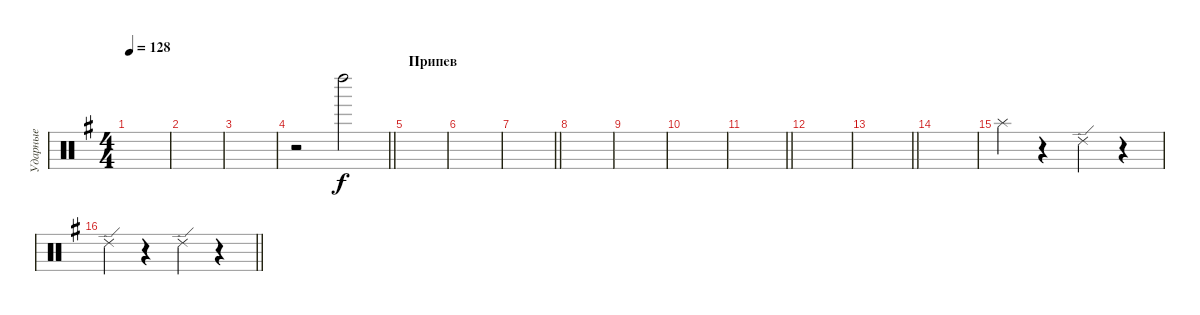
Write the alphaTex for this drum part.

\track ("Ударные" "Ударные") {instrument percussion}
\staff {score}
\articulation defaults
\ts (4 4)
\tempo 128
\clef neutral
\ks eminor
|
|
|
\barLineRight lightlight
r.2 "Left Maraca (hit)".2 |
\section ("" "Припев")
|
|
\barLineRight lightlight
|
|
|
|
\barLineRight lightlight
|
|
\barLineRight lightlight
|
|
"Splash (hit)".4 r.4 "Ride (edge) 2".4 r.4 |
\barLineRight lightlight "Ride (edge) 2".4
r.4 "Ride (edge) 2".4 r.4
